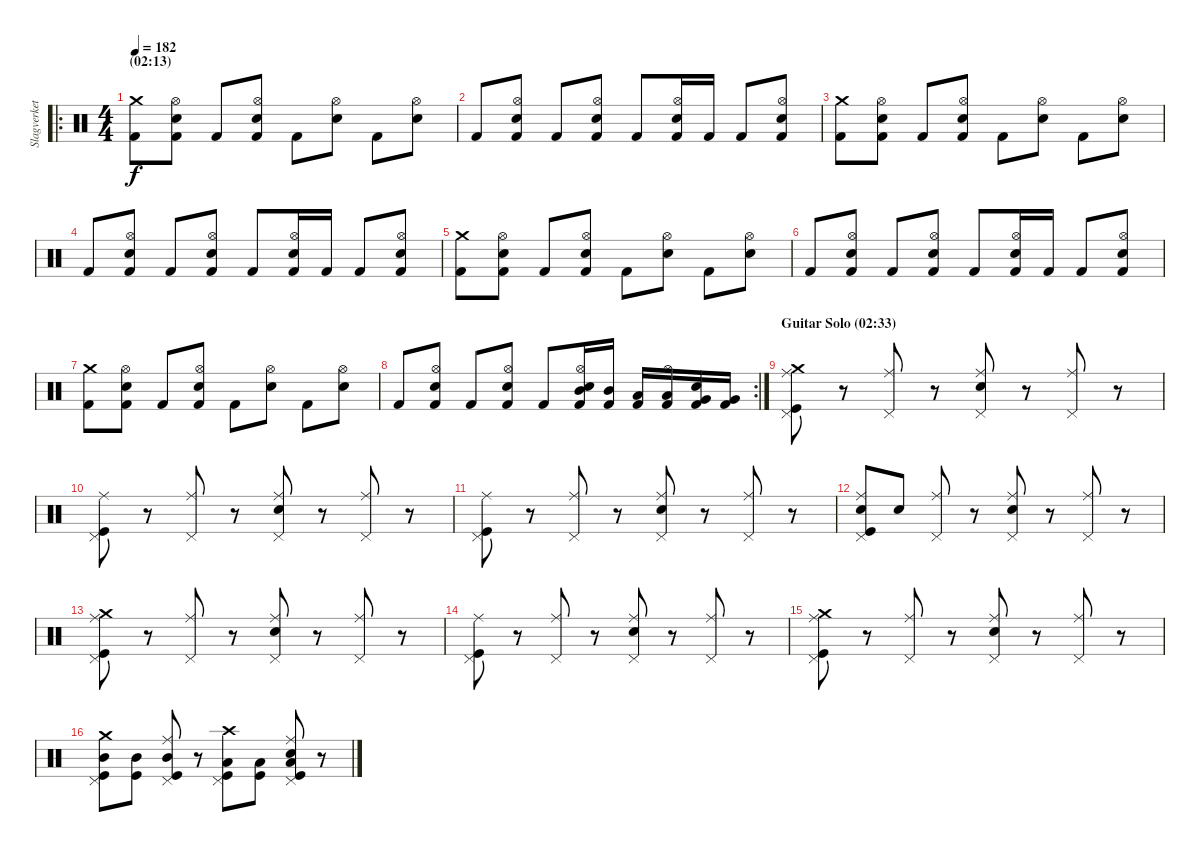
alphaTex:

\track ("Slagverket! =)" "Slagverket") {instrument percussion}
\staff {score}
\articulation defaults
\ro
\ts (4 4)
\section ("" "(02:13)")
\tempo 182
\clef neutral
\ks c
("Crash medium (hit)" "Kick (hit) 2").8{dy f} ("Hi-Hat (open)" "Snare (hit) 2" "Kick (hit) 2").8 "Kick (hit) 2".8 ("Hi-Hat (open)" "Snare (hit) 2" "Kick (hit) 2").8 "Kick (hit) 2".8 ("Hi-Hat (open)" "Snare (hit) 2").8 "Kick (hit) 2".8 ("Hi-Hat (open)" "Snare (hit) 2").8 |
"Kick (hit) 2".8 ("Hi-Hat (open)" "Snare (hit) 2" "Kick (hit) 2").8 "Kick (hit) 2".8 ("Hi-Hat (open)" "Snare (hit) 2" "Kick (hit) 2").8 "Kick (hit) 2".8 ("Hi-Hat (open)" "Snare (hit) 2" "Kick (hit) 2").16 "Kick (hit) 2".16 "Kick (hit) 2".8 ("Hi-Hat (open)" "Snare (hit) 2" "Kick (hit) 2").8 |
("Crash medium (hit)" "Kick (hit) 2").8 ("Hi-Hat (open)" "Snare (hit) 2" "Kick (hit) 2").8 "Kick (hit) 2".8 ("Hi-Hat (open)" "Snare (hit) 2" "Kick (hit) 2").8 "Kick (hit) 2".8 ("Hi-Hat (open)" "Snare (hit) 2").8 "Kick (hit) 2".8 ("Hi-Hat (open)" "Snare (hit) 2").8 |
"Kick (hit) 2".8 ("Hi-Hat (open)" "Snare (hit) 2" "Kick (hit) 2").8 "Kick (hit) 2".8 ("Hi-Hat (open)" "Snare (hit) 2" "Kick (hit) 2").8 "Kick (hit) 2".8 ("Hi-Hat (open)" "Snare (hit) 2" "Kick (hit) 2").16 "Kick (hit) 2".16 "Kick (hit) 2".8 ("Hi-Hat (open)" "Snare (hit) 2" "Kick (hit) 2").8 |
("Crash medium (hit)" "Kick (hit) 2").8 ("Hi-Hat (open)" "Snare (hit) 2" "Kick (hit) 2").8 "Kick (hit) 2".8 ("Hi-Hat (open)" "Snare (hit) 2" "Kick (hit) 2").8 "Kick (hit) 2".8 ("Hi-Hat (open)" "Snare (hit) 2").8 "Kick (hit) 2".8 ("Hi-Hat (open)" "Snare (hit) 2").8 |
"Kick (hit) 2".8 ("Hi-Hat (open)" "Snare (hit) 2" "Kick (hit) 2").8 "Kick (hit) 2".8 ("Hi-Hat (open)" "Snare (hit) 2" "Kick (hit) 2").8 "Kick (hit) 2".8 ("Hi-Hat (open)" "Snare (hit) 2" "Kick (hit) 2").16 "Kick (hit) 2".16 "Kick (hit) 2".8 ("Hi-Hat (open)" "Snare (hit) 2" "Kick (hit) 2").8 |
("Crash medium (hit)" "Kick (hit) 2").8 ("Hi-Hat (open)" "Snare (hit) 2" "Kick (hit) 2").8 "Kick (hit) 2".8 ("Hi-Hat (open)" "Snare (hit) 2" "Kick (hit) 2").8 "Kick (hit) 2".8 ("Hi-Hat (open)" "Snare (hit) 2").8 "Kick (hit) 2".8 ("Hi-Hat (open)" "Snare (hit) 2").8 |
\rc 2 "Kick (hit) 2".8
("Hi-Hat (open)" "Snare (hit) 2" "Kick (hit) 2").8 "Kick (hit) 2".8 ("Hi-Hat (open)" "Snare (hit) 2" "Kick (hit) 2").8 "Kick (hit) 2".8 ("Hi-Hat (open)" "Mid Tom (hit)" "Snare (hit) 2" "Kick (hit) 2").16 ("Mid Tom (hit)" "Kick (hit) 2").16 ("Low Tom (hit)" "Kick (hit) 2").16 ("Hi-Hat (open)" "Low Tom (hit)" "Kick (hit) 2").16 ("Very Low Tom (hit)" "Snare (hit) 2" "Kick (hit) 2").16 ("Very Low Tom (hit)" "Kick (hit) 2").16 |
\section ("" "Guitar Solo (02:33)")
("Ride (middle)" "Pedal Hi-Hat (hit)" "Crash medium (hit)" "Kick (hit)").8 r.8 ("Ride (middle)" "Pedal Hi-Hat (hit)").8 r.8 ("Ride (middle)" "Pedal Hi-Hat (hit)" "Snare (hit) 2").8 r.8 ("Ride (middle)" "Pedal Hi-Hat (hit)").8 r.8 |
("Ride (middle)" "Pedal Hi-Hat (hit)" "Kick (hit)").8 r.8 ("Ride (middle)" "Pedal Hi-Hat (hit)").8 r.8 ("Ride (middle)" "Pedal Hi-Hat (hit)" "Snare (hit) 2").8 r.8 ("Ride (middle)" "Pedal Hi-Hat (hit)").8 r.8 |
("Ride (middle)" "Pedal Hi-Hat (hit)" "Kick (hit)").8 r.8 ("Ride (middle)" "Pedal Hi-Hat (hit)").8 r.8 ("Ride (middle)" "Pedal Hi-Hat (hit)" "Snare (hit) 2").8 r.8 ("Ride (middle)" "Pedal Hi-Hat (hit)").8 r.8 |
("Ride (middle)" "Pedal Hi-Hat (hit)" "Snare (hit) 2" "Kick (hit)").8 "Snare (hit) 2".8 ("Ride (middle)" "Pedal Hi-Hat (hit)").8 r.8 ("Ride (middle)" "Pedal Hi-Hat (hit)" "Snare (hit) 2").8 r.8 ("Ride (middle)" "Pedal Hi-Hat (hit)").8 r.8 |
("Ride (middle)" "Pedal Hi-Hat (hit)" "Crash medium (hit)" "Kick (hit)").8 r.8 ("Ride (middle)" "Pedal Hi-Hat (hit)").8 r.8 ("Ride (middle)" "Pedal Hi-Hat (hit)" "Snare (hit) 2").8 r.8 ("Ride (middle)" "Pedal Hi-Hat (hit)").8 r.8 |
("Ride (middle)" "Pedal Hi-Hat (hit)" "Kick (hit)").8 r.8 ("Ride (middle)" "Pedal Hi-Hat (hit)").8 r.8 ("Ride (middle)" "Pedal Hi-Hat (hit)" "Snare (hit) 2").8 r.8 ("Ride (middle)" "Pedal Hi-Hat (hit)").8 r.8 |
("Ride (middle)" "Pedal Hi-Hat (hit)" "Crash medium (hit)" "Kick (hit)").8 r.8 ("Ride (middle)" "Pedal Hi-Hat (hit)").8 r.8 ("Ride (middle)" "Pedal Hi-Hat (hit)" "Snare (hit) 2").8 r.8 ("Ride (middle)" "Pedal Hi-Hat (hit)").8 r.8 |
("Crash medium (hit)" "Pedal Hi-Hat (hit)" "Mid Tom (hit)" "Kick (hit)").8 ("Mid Tom (hit)" "Kick (hit)").8 ("Ride (middle)" "Pedal Hi-Hat (hit)" "Mid Tom (hit)" "Kick (hit)").8 r.8 ("Crash high (hit)" "Pedal Hi-Hat (hit)" "Kick (hit)" "Low Tom (hit)").8 ("Kick (hit)" "Low Tom (hit)").8 ("Ride (middle)" "Pedal Hi-Hat (hit)" "Snare (hit) 2" "Kick (hit)" "Low Tom (hit)").8 r.8
